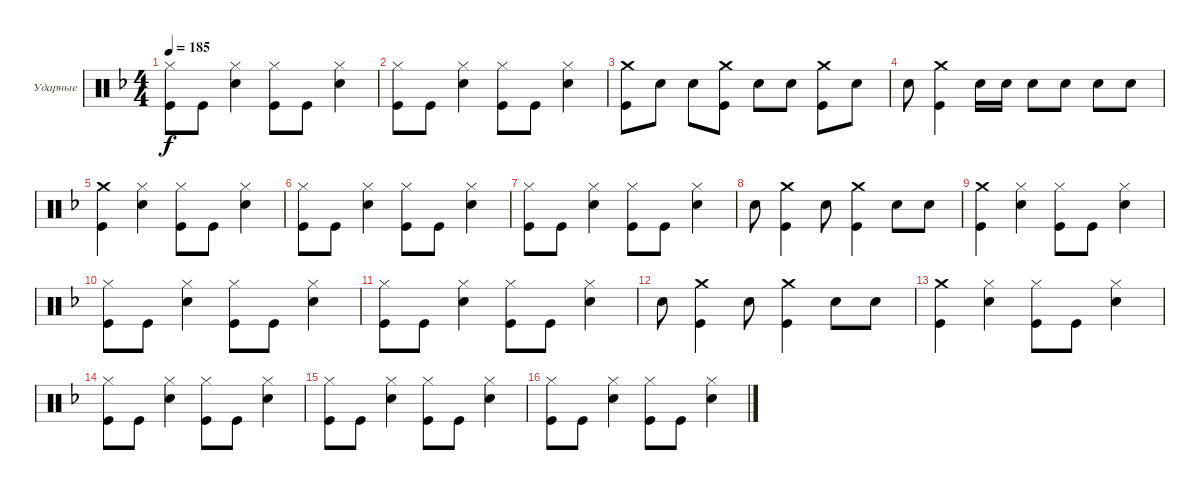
\bracketExtendMode groupsimilarinstruments
\firstSystemTrackNameOrientation horizontal
\otherSystemsTrackNameOrientation horizontal
\track ("Александр Львов" "Ударные") {instrument percussion}
\staff {score}
\articulation defaults
\ts (4 4)
\tempo 185
\clef neutral
\ks dminor
("Kick (hit)" "Hi-Hat (closed)").8{dy f} "Kick (hit)".8 ("Snare (hit) 2" "Hi-Hat (closed)").4 ("Kick (hit)" "Hi-Hat (closed)").8 "Kick (hit)".8 ("Hi-Hat (closed)" "Snare (hit) 2").4 |
("Kick (hit)" "Hi-Hat (closed)").8 "Kick (hit)".8 ("Snare (hit) 2" "Hi-Hat (closed)").4 ("Kick (hit)" "Hi-Hat (closed)").8 "Kick (hit)".8 ("Hi-Hat (closed)" "Snare (hit) 2").4 |
("Kick (hit)" "Crash medium (hit)").8 "Snare (hit) 2".8 "Snare (hit) 2".8 ("Kick (hit)" "Crash medium (hit)").8 "Snare (hit) 2".8 "Snare (hit) 2".8 ("Kick (hit)" "Crash medium (hit)").8 "Snare (hit) 2".8 |
"Snare (hit) 2".8 ("Kick (hit)" "Crash medium (hit)").4 "Snare (hit) 2".16 "Snare (hit) 2".16 "Snare (hit) 2".8 "Snare (hit) 2".8 "Snare (hit) 2".8 "Snare (hit) 2".8 |
("Kick (hit)" "Crash medium (hit)").4 ("Snare (hit) 2" "Hi-Hat (closed)").4 ("Kick (hit)" "Hi-Hat (closed)").8 "Kick (hit)".8 ("Hi-Hat (closed)" "Snare (hit) 2").4 |
("Kick (hit)" "Hi-Hat (closed)").8 "Kick (hit)".8 ("Snare (hit) 2" "Hi-Hat (closed)").4 ("Kick (hit)" "Hi-Hat (closed)").8 "Kick (hit)".8 ("Hi-Hat (closed)" "Snare (hit) 2").4 |
("Kick (hit)" "Hi-Hat (closed)").8 "Kick (hit)".8 ("Snare (hit) 2" "Hi-Hat (closed)").4 ("Kick (hit)" "Hi-Hat (closed)").8 "Kick (hit)".8 ("Hi-Hat (closed)" "Snare (hit) 2").4 |
"Snare (hit) 2".8 ("Kick (hit)" "Crash medium (hit)").4 "Snare (hit) 2".8 ("Kick (hit)" "Crash medium (hit)").4 "Snare (hit) 2".8 "Snare (hit) 2".8 |
("Kick (hit)" "Crash medium (hit)").4 ("Snare (hit) 2" "Hi-Hat (closed)").4 ("Kick (hit)" "Hi-Hat (closed)").8 "Kick (hit)".8 ("Hi-Hat (closed)" "Snare (hit) 2").4 |
("Kick (hit)" "Hi-Hat (closed)").8 "Kick (hit)".8 ("Snare (hit) 2" "Hi-Hat (closed)").4 ("Kick (hit)" "Hi-Hat (closed)").8 "Kick (hit)".8 ("Hi-Hat (closed)" "Snare (hit) 2").4 |
("Kick (hit)" "Hi-Hat (closed)").8 "Kick (hit)".8 ("Snare (hit) 2" "Hi-Hat (closed)").4 ("Kick (hit)" "Hi-Hat (closed)").8 "Kick (hit)".8 ("Hi-Hat (closed)" "Snare (hit) 2").4 |
"Snare (hit) 2".8 ("Kick (hit)" "Crash medium (hit)").4 "Snare (hit) 2".8 ("Kick (hit)" "Crash medium (hit)").4 "Snare (hit) 2".8 "Snare (hit) 2".8 |
("Kick (hit)" "Crash medium (hit)").4 ("Snare (hit) 2" "Hi-Hat (closed)").4 ("Kick (hit)" "Hi-Hat (closed)").8 "Kick (hit)".8 ("Hi-Hat (closed)" "Snare (hit) 2").4 |
("Kick (hit)" "Hi-Hat (closed)").8 "Kick (hit)".8 ("Snare (hit) 2" "Hi-Hat (closed)").4 ("Kick (hit)" "Hi-Hat (closed)").8 "Kick (hit)".8 ("Hi-Hat (closed)" "Snare (hit) 2").4 |
("Kick (hit)" "Hi-Hat (closed)").8 "Kick (hit)".8 ("Snare (hit) 2" "Hi-Hat (closed)").4 ("Kick (hit)" "Hi-Hat (closed)").8 "Kick (hit)".8 ("Hi-Hat (closed)" "Snare (hit) 2").4 |
("Kick (hit)" "Hi-Hat (closed)").8 "Kick (hit)".8 ("Snare (hit) 2" "Hi-Hat (closed)").4 ("Kick (hit)" "Hi-Hat (closed)").8 "Kick (hit)".8 ("Hi-Hat (closed)" "Snare (hit) 2").4
